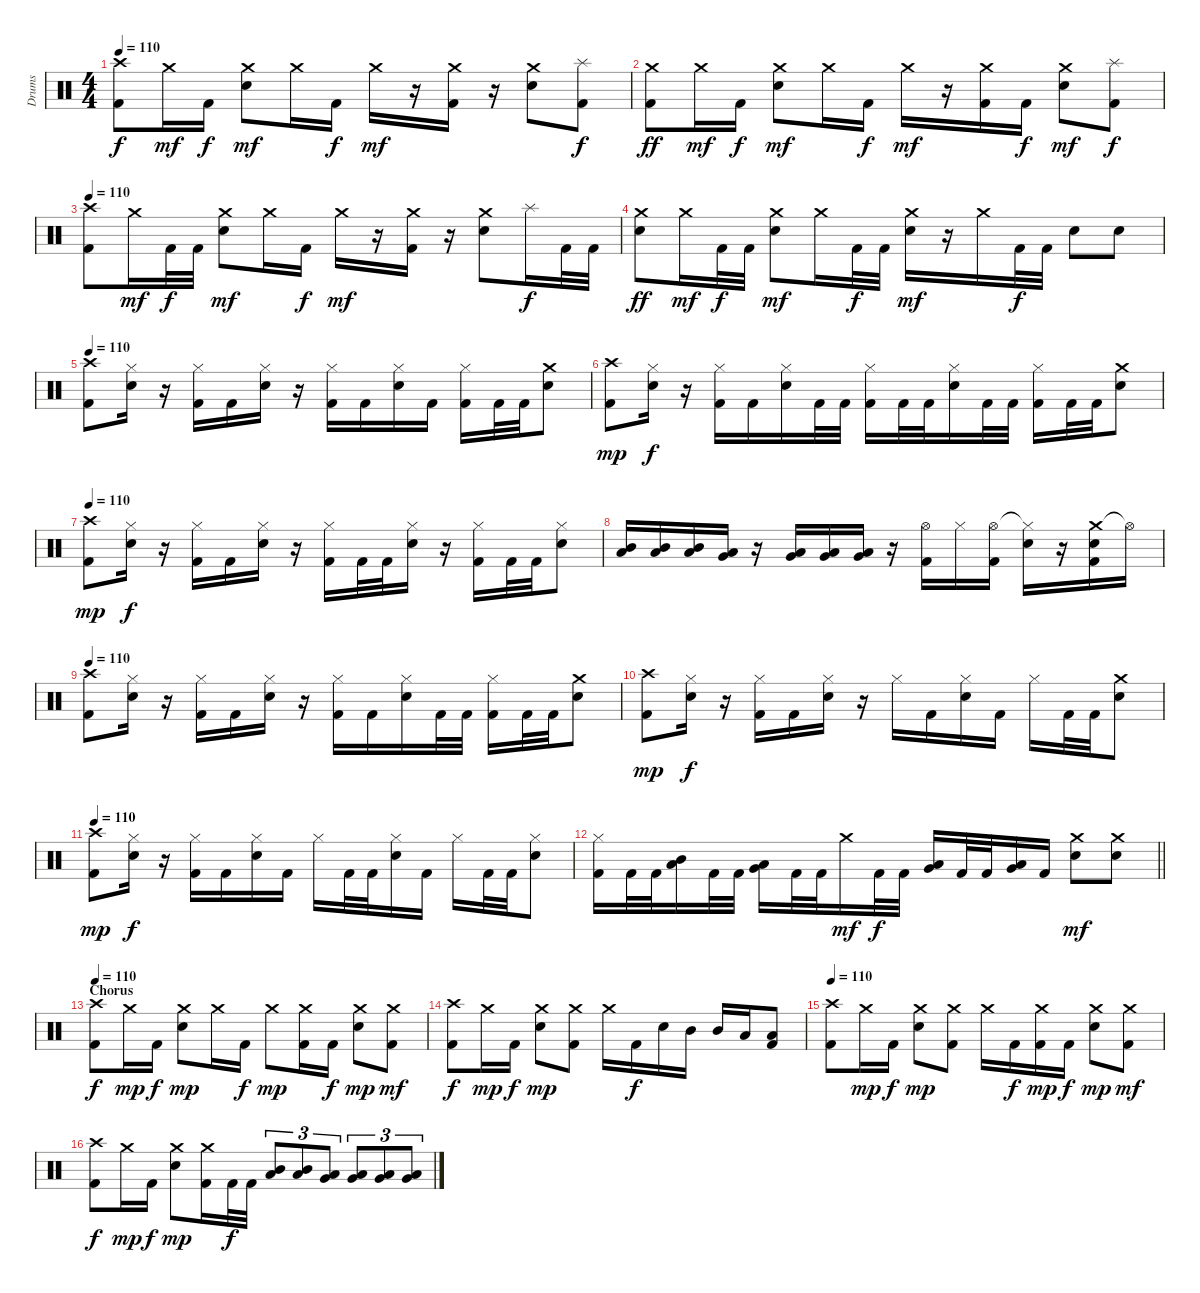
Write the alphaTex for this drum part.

\track ("Drums" "Drums") {instrument percussion}
\staff {score}
\articulation defaults
\ts (4 4)
\tempo 110
\clef neutral
\ks c
("Crash high (hit)" "Kick (hit) 2").8{dy f} "Crash medium (hit)".16{dy mf} "Kick (hit) 2".16{dy f} ("Crash medium (hit)" "Electric Snare (hit)").8{dy mf} "Crash medium (hit)".16 "Kick (hit) 2".16{dy f} "Crash medium (hit)".16{dy mf} r.16 ("Crash medium (hit)" "Kick (hit) 2").16 r.16 ("Crash medium (hit)" "Electric Snare (hit)").8 ("Splash (hit)" "Kick (hit) 2").8{dy f} |
("Crash medium (hit)" "Kick (hit) 2").8{dy ff} "Crash medium (hit)".16{dy mf} "Kick (hit) 2".16{dy f} ("Crash medium (hit)" "Electric Snare (hit)").8{dy mf} "Crash medium (hit)".16 "Kick (hit) 2".16{dy f} "Crash medium (hit)".16{dy mf} r.16 ("Crash medium (hit)" "Kick (hit) 2").16 "Kick (hit) 2".16{dy f} ("Crash medium (hit)" "Electric Snare (hit)").8{dy mf} ("Splash (hit)" "Kick (hit) 2").8{dy f} |
\tempo 110
("Crash high (hit)" "Kick (hit) 2").8 "Crash medium (hit)".16{dy mf} "Kick (hit) 2".32{dy f} "Kick (hit) 2".32 ("Crash medium (hit)" "Electric Snare (hit)").8{dy mf} "Crash medium (hit)".16 "Kick (hit) 2".16{dy f} "Crash medium (hit)".16{dy mf} r.16 ("Crash medium (hit)" "Kick (hit) 2").16 r.16 ("Crash medium (hit)" "Electric Snare (hit)").8 "Splash (hit)".16{dy f} "Kick (hit) 2".32 "Kick (hit) 2".32 |
("Crash medium (hit)" "Electric Snare (hit)").8{dy ff} "Crash medium (hit)".16{dy mf} "Kick (hit) 2".32{dy f} "Kick (hit) 2".32 ("Crash medium (hit)" "Electric Snare (hit)").8{dy mf} "Crash medium (hit)".16 "Kick (hit) 2".32{dy f} "Kick (hit) 2".32 ("Crash medium (hit)" "Electric Snare (hit)").16{dy mf} r.16 "Crash medium (hit)".16 "Kick (hit) 2".32{dy f} "Kick (hit) 2".32 "Electric Snare (hit)".8 "Electric Snare (hit)".8 |
\tempo 110
("Crash high (hit)" "Kick (hit) 2").8 ("Hi-Hat (closed)" "Electric Snare (hit)").16 r.16 ("Hi-Hat (closed)" "Kick (hit) 2").16 "Kick (hit) 2".16 ("Hi-Hat (closed)" "Electric Snare (hit)").16 r.16 ("Hi-Hat (closed)" "Kick (hit) 2").16 "Kick (hit) 2".16 ("Hi-Hat (closed)" "Electric Snare (hit)").16 "Kick (hit) 2".16 ("Hi-Hat (closed)" "Kick (hit) 2").16 "Kick (hit) 2".32 "Kick (hit) 2".32 ("Crash medium (hit)" "Electric Snare (hit)").8 |
("Crash high (hit)" "Kick (hit) 2").8{dy mp} ("Hi-Hat (closed)" "Electric Snare (hit)").16{dy f} r.16 ("Hi-Hat (closed)" "Kick (hit) 2").16 "Kick (hit) 2".16 ("Hi-Hat (closed)" "Electric Snare (hit)").16 "Kick (hit) 2".32 "Kick (hit) 2".32 ("Hi-Hat (closed)" "Kick (hit) 2").16 "Kick (hit) 2".32 "Kick (hit) 2".32 ("Hi-Hat (closed)" "Electric Snare (hit)").16 "Kick (hit) 2".32 "Kick (hit) 2".32 ("Hi-Hat (closed)" "Kick (hit) 2").16 "Kick (hit) 2".32 "Kick (hit) 2".32 ("Crash medium (hit)" "Electric Snare (hit)").8 |
\tempo 110
("Crash high (hit)" "Kick (hit) 2").8{dy mp} ("Hi-Hat (closed)" "Electric Snare (hit)").16{dy f} r.16 ("Hi-Hat (closed)" "Kick (hit) 2").16 "Kick (hit) 2".16 ("Hi-Hat (closed)" "Electric Snare (hit)").16 r.16 ("Hi-Hat (closed)" "Kick (hit) 2").16 "Kick (hit) 2".32 "Kick (hit) 2".32 ("Hi-Hat (closed)" "Electric Snare (hit)").16 r.16 ("Hi-Hat (closed)" "Kick (hit) 2").16 "Kick (hit) 2".32 "Kick (hit) 2".32 ("Hi-Hat (closed)" "Electric Snare (hit)").8 |
("Mid Tom (hit)" "Low Tom (hit)").16 ("Mid Tom (hit)" "Low Tom (hit)").16 ("Mid Tom (hit)" "Low Tom (hit)").16 ("Low Tom (hit)" "Very Low Tom (hit)").16 r.16 ("Low Tom (hit)" "Very Low Tom (hit)").16 ("Low Tom (hit)" "Very Low Tom (hit)").16 ("Very Low Tom (hit)" "Low Floor Tom (hit)").16 r.16 ("Hi-Hat (open)" "Kick (hit) 2").16 "Hi-Hat (closed)".16 ("Hi-Hat (open)" "Kick (hit) 2").16 ("Hi-Hat (closed)"{t} "Electric Snare (hit)").16 r.16 ("Crash medium (hit)" "Electric Snare (hit)" "Kick (hit) 2").16 "Hi-Hat (open)"{t}.16 |
\tempo 110
("Crash high (hit)" "Kick (hit) 2").8 ("Hi-Hat (closed)" "Electric Snare (hit)").16 r.16 ("Hi-Hat (closed)" "Kick (hit) 2").16 "Kick (hit) 2".16 ("Hi-Hat (closed)" "Electric Snare (hit)").16 r.16 ("Hi-Hat (closed)" "Kick (hit) 2").16 "Kick (hit) 2".16 ("Hi-Hat (closed)" "Electric Snare (hit)").16 "Kick (hit) 2".32 "Kick (hit) 2".32 ("Hi-Hat (closed)" "Kick (hit) 2").16 "Kick (hit) 2".32 "Kick (hit) 2".32 ("Crash medium (hit)" "Electric Snare (hit)").8 |
("Crash high (hit)" "Kick (hit) 2").8{dy mp} ("Hi-Hat (closed)" "Electric Snare (hit)").16{dy f} r.16 ("Hi-Hat (closed)" "Kick (hit) 2").16 "Kick (hit) 2".16 ("Hi-Hat (closed)" "Electric Snare (hit)").16 r.16 "Hi-Hat (closed)".16 "Kick (hit) 2".16 ("Hi-Hat (closed)" "Electric Snare (hit)").16 "Kick (hit) 2".16 "Hi-Hat (closed)".16 "Kick (hit) 2".32 "Kick (hit) 2".32 ("Crash medium (hit)" "Electric Snare (hit)").8 |
\tempo 110
("Crash high (hit)" "Kick (hit) 2").8{dy mp} ("Hi-Hat (closed)" "Electric Snare (hit)").16{dy f} r.16 ("Hi-Hat (closed)" "Kick (hit) 2").16 "Kick (hit) 2".16 ("Hi-Hat (closed)" "Electric Snare (hit)").16 "Kick (hit) 2".16 "Hi-Hat (closed)".16 "Kick (hit) 2".32 "Kick (hit) 2".32 ("Hi-Hat (closed)" "Electric Snare (hit)").16 "Kick (hit) 2".16 "Hi-Hat (closed)".16 "Kick (hit) 2".32 "Kick (hit) 2".32 ("Hi-Hat (closed)" "Electric Snare (hit)").8 |
\barLineRight lightlight
("Hi-Hat (closed)" "Kick (hit) 2").16 "Kick (hit) 2".32 "Kick (hit) 2".32 ("Mid Tom (hit)" "Low Tom (hit)").16 "Kick (hit) 2".32 "Kick (hit) 2".32 ("Low Tom (hit)" "Very Low Tom (hit)").16 "Kick (hit) 2".32 "Kick (hit) 2".32 "Crash medium (hit)".16{dy mf} "Kick (hit) 2".32{dy f} "Kick (hit) 2".32 ("Low Tom (hit)" "Very Low Tom (hit)").16 "Kick (hit) 2".32 "Kick (hit) 2".32 ("Very Low Tom (hit)" "Low Floor Tom (hit)").16 "Kick (hit) 2".16 ("Crash medium (hit)" "Electric Snare (hit)").8{dy mf} ("Crash medium (hit)" "Electric Snare (hit)").8 |
\section ("" "Chorus")
\tempo 110
("Crash high (hit)" "Kick (hit) 2").8{dy f} "Crash medium (hit)".16{dy mp} "Kick (hit) 2".16{dy f} ("Crash medium (hit)" "Electric Snare (hit)").8{dy mp} "Crash medium (hit)".16 "Kick (hit) 2".16{dy f} "Crash medium (hit)".8{dy mp} ("Crash medium (hit)" "Kick (hit) 2").16 "Kick (hit) 2".16{dy f} ("Crash medium (hit)" "Electric Snare (hit)").8{dy mp} ("Crash medium (hit)" "Kick (hit) 2").8{dy mf} |
("Crash high (hit)" "Kick (hit) 2").8{dy f} "Crash medium (hit)".16{dy mp} "Kick (hit) 2".16{dy f} ("Crash medium (hit)" "Electric Snare (hit)").8{dy mp} ("Crash medium (hit)" "Kick (hit) 2").8 "Crash medium (hit)".16 "Kick (hit) 2".16{dy f} "Electric Snare (hit)".16 "Mid Tom (hit)".16 "Mid Tom (hit)".16 "Low Tom (hit)".16 ("Low Tom (hit)" "Kick (hit) 2").8 |
\tempo 110
("Crash high (hit)" "Kick (hit) 2").8 "Crash medium (hit)".16{dy mp} "Kick (hit) 2".16{dy f} ("Crash medium (hit)" "Electric Snare (hit)").8{dy mp} ("Crash medium (hit)" "Kick (hit) 2").8 "Crash medium (hit)".16 "Kick (hit) 2".16{dy f} ("Crash medium (hit)" "Kick (hit) 2").16{dy mp} "Kick (hit) 2".16{dy f} ("Crash medium (hit)" "Electric Snare (hit)").8{dy mp} ("Crash medium (hit)" "Kick (hit) 2").8{dy mf} |
("Crash high (hit)" "Kick (hit) 2").8{dy f} "Crash medium (hit)".16{dy mp} "Kick (hit) 2".16{dy f} ("Crash medium (hit)" "Electric Snare (hit)").8{dy mp} ("Crash medium (hit)" "Kick (hit) 2").16 "Kick (hit) 2".32{dy f} "Kick (hit) 2".32 ("Mid Tom (hit)" "Low Tom (hit)").8{tu (3 2)} ("Mid Tom (hit)" "Low Tom (hit)").8{tu (3 2)} ("Low Tom (hit)" "Very Low Tom (hit)").8{tu (3 2)} ("Low Tom (hit)" "Very Low Tom (hit)").8{tu (3 2)} ("Low Tom (hit)" "Very Low Tom (hit)").8{tu (3 2)} ("Very Low Tom (hit)" "Low Floor Tom (hit)").8{tu (3 2)}
